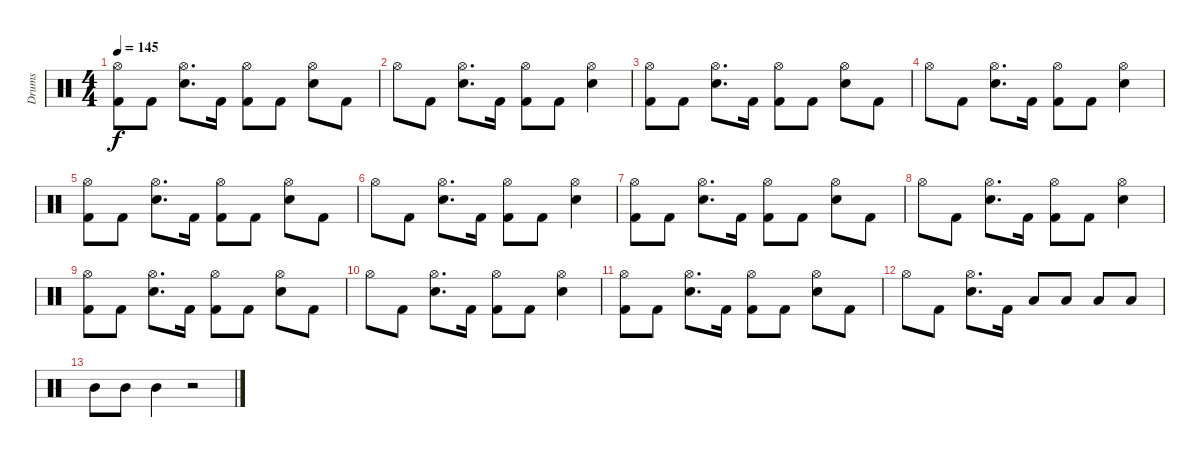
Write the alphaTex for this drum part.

\track ("Drums" "Drums") {instrument percussion}
\staff {score}
\articulation defaults
\ts (4 4)
\tempo 145
\clef neutral
\ks c
("Hi-Hat (open)" "Kick (hit) 2").8{dy f} "Kick (hit) 2".8 ("Hi-Hat (open)" "Electric Snare (hit)").8{d} "Kick (hit) 2".16 ("Hi-Hat (open)" "Kick (hit) 2").8 "Kick (hit) 2".8 ("Hi-Hat (open)" "Electric Snare (hit)").8 "Kick (hit) 2".8 |
"Hi-Hat (open)".8 "Kick (hit) 2".8 ("Hi-Hat (open)" "Electric Snare (hit)").8{d} "Kick (hit) 2".16 ("Hi-Hat (open)" "Kick (hit) 2").8 "Kick (hit) 2".8 ("Hi-Hat (open)" "Electric Snare (hit)").4 |
("Hi-Hat (open)" "Kick (hit) 2").8 "Kick (hit) 2".8 ("Hi-Hat (open)" "Electric Snare (hit)").8{d} "Kick (hit) 2".16 ("Hi-Hat (open)" "Kick (hit) 2").8 "Kick (hit) 2".8 ("Hi-Hat (open)" "Electric Snare (hit)").8 "Kick (hit) 2".8 |
"Hi-Hat (open)".8 "Kick (hit) 2".8 ("Hi-Hat (open)" "Electric Snare (hit)").8{d} "Kick (hit) 2".16 ("Hi-Hat (open)" "Kick (hit) 2").8 "Kick (hit) 2".8 ("Hi-Hat (open)" "Electric Snare (hit)").4 |
("Hi-Hat (open)" "Kick (hit) 2").8 "Kick (hit) 2".8 ("Hi-Hat (open)" "Electric Snare (hit)").8{d} "Kick (hit) 2".16 ("Hi-Hat (open)" "Kick (hit) 2").8 "Kick (hit) 2".8 ("Hi-Hat (open)" "Electric Snare (hit)").8 "Kick (hit) 2".8 |
"Hi-Hat (open)".8 "Kick (hit) 2".8 ("Hi-Hat (open)" "Electric Snare (hit)").8{d} "Kick (hit) 2".16 ("Hi-Hat (open)" "Kick (hit) 2").8 "Kick (hit) 2".8 ("Hi-Hat (open)" "Electric Snare (hit)").4 |
("Hi-Hat (open)" "Kick (hit) 2").8 "Kick (hit) 2".8 ("Hi-Hat (open)" "Electric Snare (hit)").8{d} "Kick (hit) 2".16 ("Hi-Hat (open)" "Kick (hit) 2").8 "Kick (hit) 2".8 ("Hi-Hat (open)" "Electric Snare (hit)").8 "Kick (hit) 2".8 |
"Hi-Hat (open)".8 "Kick (hit) 2".8 ("Hi-Hat (open)" "Electric Snare (hit)").8{d} "Kick (hit) 2".16 ("Hi-Hat (open)" "Kick (hit) 2").8 "Kick (hit) 2".8 ("Hi-Hat (open)" "Electric Snare (hit)").4 |
("Hi-Hat (open)" "Kick (hit) 2").8 "Kick (hit) 2".8 ("Hi-Hat (open)" "Electric Snare (hit)").8{d} "Kick (hit) 2".16 ("Hi-Hat (open)" "Kick (hit) 2").8 "Kick (hit) 2".8 ("Hi-Hat (open)" "Electric Snare (hit)").8 "Kick (hit) 2".8 |
"Hi-Hat (open)".8 "Kick (hit) 2".8 ("Hi-Hat (open)" "Electric Snare (hit)").8{d} "Kick (hit) 2".16 ("Hi-Hat (open)" "Kick (hit) 2").8 "Kick (hit) 2".8 ("Hi-Hat (open)" "Electric Snare (hit)").4 |
("Hi-Hat (open)" "Kick (hit) 2").8 "Kick (hit) 2".8 ("Hi-Hat (open)" "Electric Snare (hit)").8{d} "Kick (hit) 2".16 ("Hi-Hat (open)" "Kick (hit) 2").8 "Kick (hit) 2".8 ("Hi-Hat (open)" "Electric Snare (hit)").8 "Kick (hit) 2".8 |
"Hi-Hat (open)".8 "Kick (hit) 2".8 ("Hi-Hat (open)" "Electric Snare (hit)").8{d} "Kick (hit) 2".16 "Low Tom (hit)".8 "Low Tom (hit)".8 "Low Tom (hit)".8 "Low Tom (hit)".8 |
"Mid Tom (hit)".8 "Mid Tom (hit)".8 "Mid Tom (hit)".4 r.2
